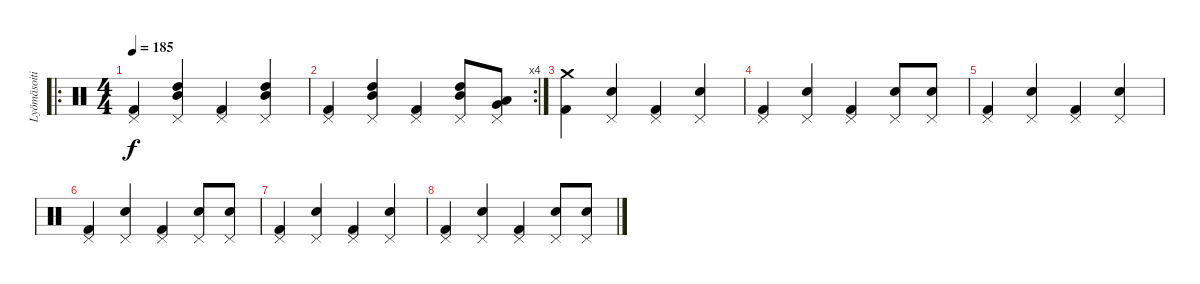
\track ("Lyömäsoitin" "Lyömäsoiti") {instrument percussion}
\staff {score}
\articulation defaults
\ro
\ts (4 4)
\tempo 185
\clef neutral
\ks c
("Pedal Hi-Hat (hit)" "Kick (hit) 2").4{dy f} ("Pedal Hi-Hat (hit)" "Mid Tom (hit)" "High Tom (hit)").4 ("Pedal Hi-Hat (hit)" "Kick (hit) 2").4 ("Pedal Hi-Hat (hit)" "Mid Tom (hit)" "High Tom (hit)").4 |
\rc 4
("Pedal Hi-Hat (hit)" "Kick (hit) 2").4 ("Pedal Hi-Hat (hit)" "Mid Tom (hit)" "High Tom (hit)").4 ("Pedal Hi-Hat (hit)" "Kick (hit) 2").4 ("Pedal Hi-Hat (hit)" "Mid Tom (hit)" "High Tom (hit)").8 ("Pedal Hi-Hat (hit)" "Low Tom (hit)" "Very Low Tom (hit)").8 |
("Crash medium (hit)" "Kick (hit) 2").4 ("Pedal Hi-Hat (hit)" "Electric Snare (hit)").4 ("Pedal Hi-Hat (hit)" "Kick (hit) 2").4 ("Pedal Hi-Hat (hit)" "Electric Snare (hit)").4 |
("Pedal Hi-Hat (hit)" "Kick (hit) 2").4 ("Pedal Hi-Hat (hit)" "Electric Snare (hit)").4 ("Pedal Hi-Hat (hit)" "Kick (hit) 2").4 ("Pedal Hi-Hat (hit)" "Electric Snare (hit)").8 ("Pedal Hi-Hat (hit)" "Snare (hit) 2").8 |
("Pedal Hi-Hat (hit)" "Kick (hit) 2").4 ("Pedal Hi-Hat (hit)" "Electric Snare (hit)").4 ("Pedal Hi-Hat (hit)" "Kick (hit) 2").4 ("Pedal Hi-Hat (hit)" "Electric Snare (hit)").4 |
("Pedal Hi-Hat (hit)" "Kick (hit) 2").4 ("Pedal Hi-Hat (hit)" "Electric Snare (hit)").4 ("Pedal Hi-Hat (hit)" "Kick (hit) 2").4 ("Pedal Hi-Hat (hit)" "Electric Snare (hit)").8 ("Pedal Hi-Hat (hit)" "Snare (hit) 2").8 |
("Pedal Hi-Hat (hit)" "Kick (hit) 2").4 ("Pedal Hi-Hat (hit)" "Electric Snare (hit)").4 ("Pedal Hi-Hat (hit)" "Kick (hit) 2").4 ("Pedal Hi-Hat (hit)" "Electric Snare (hit)").4 |
("Pedal Hi-Hat (hit)" "Kick (hit) 2").4 ("Pedal Hi-Hat (hit)" "Electric Snare (hit)").4 ("Pedal Hi-Hat (hit)" "Kick (hit) 2").4 ("Pedal Hi-Hat (hit)" "Electric Snare (hit)").8 ("Pedal Hi-Hat (hit)" "Snare (hit) 2").8
